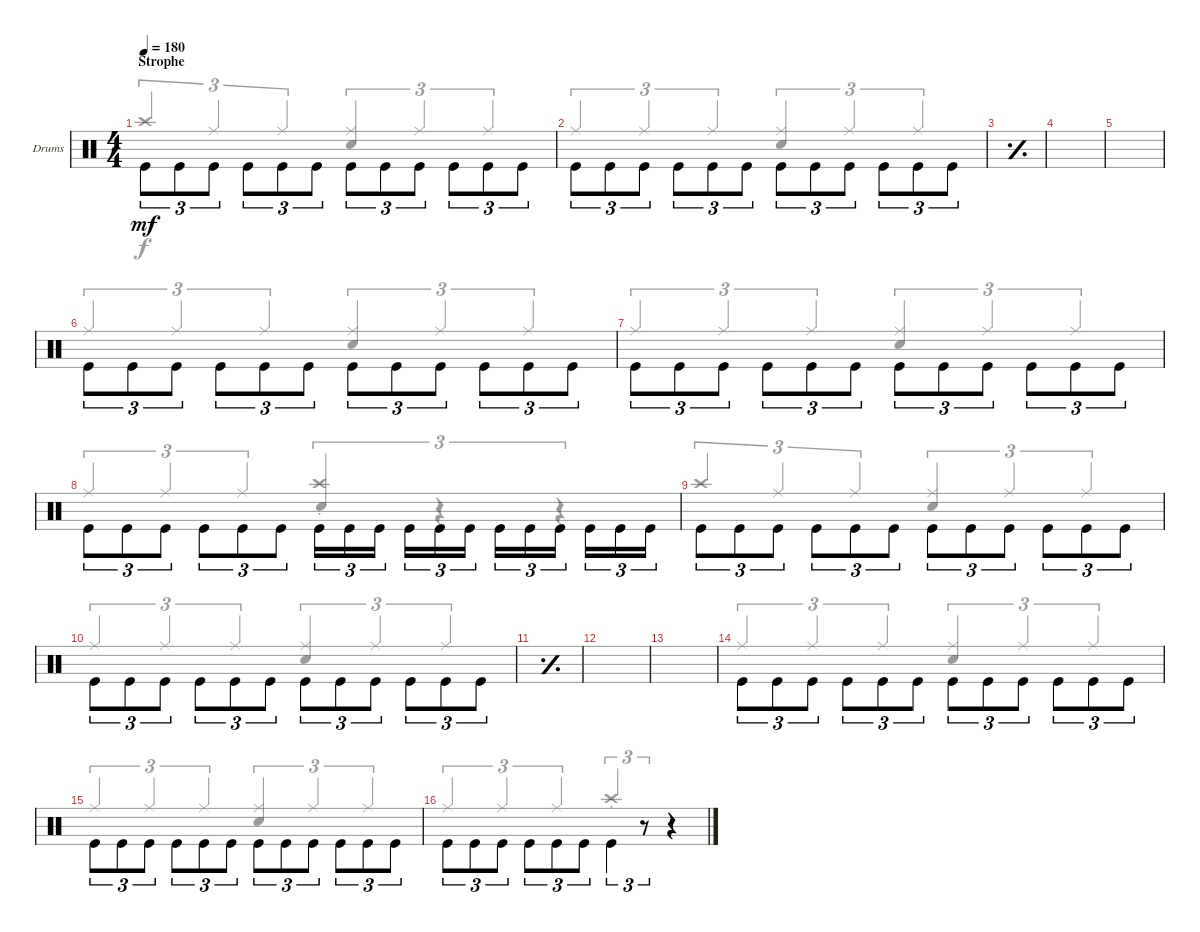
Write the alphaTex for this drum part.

\defaultSystemsLayout 4
\bracketExtendMode groupsimilarinstruments
\multiBarRest
\firstSystemTrackNameOrientation horizontal
\otherSystemsTrackNameOrientation horizontal
\track ("Drumkit" "Drums") {instrument percussion}
\staff {score}
\articulation defaults
\voice
\ts (4 4)
\section ("" "Strophe")
\tempo 180
\clef neutral
\ks c "Kick (hit)".8{tu (3 2) dy mf beam invert} "Kick (hit)".8{tu (3 2) beam invert} "Kick (hit)".8{tu (3 2) beam invert} "Kick (hit)".8{tu (3 2) beam invert} "Kick (hit)".8{tu (3 2) beam invert} "Kick (hit)".8{tu (3 2) beam invert} "Kick (hit)".8{tu (3 2) beam invert} "Kick (hit)".8{tu (3 2) beam invert} "Kick (hit)".8{tu (3 2) beam invert} "Kick (hit)".8{tu (3 2) beam invert} "Kick (hit)".8{tu (3 2) beam invert} "Kick (hit)".8{tu (3 2) beam invert}
|
"Kick (hit)".8{tu (3 2) beam invert} "Kick (hit)".8{tu (3 2) beam invert} "Kick (hit)".8{tu (3 2) beam invert} "Kick (hit)".8{tu (3 2) beam invert} "Kick (hit)".8{tu (3 2) beam invert} "Kick (hit)".8{tu (3 2) beam invert} "Kick (hit)".8{tu (3 2) beam invert} "Kick (hit)".8{tu (3 2) beam invert} "Kick (hit)".8{tu (3 2) beam invert} "Kick (hit)".8{tu (3 2) beam invert} "Kick (hit)".8{tu (3 2) beam invert} "Kick (hit)".8{tu (3 2) beam invert} |
\simile simple
|
|
|
\simile none "Kick (hit)".8{tu (3 2) beam invert} "Kick (hit)".8{tu (3 2) beam invert} "Kick (hit)".8{tu (3 2) beam invert} "Kick (hit)".8{tu (3 2) beam invert} "Kick (hit)".8{tu (3 2) beam invert} "Kick (hit)".8{tu (3 2) beam invert} "Kick (hit)".8{tu (3 2) beam invert} "Kick (hit)".8{tu (3 2) beam invert} "Kick (hit)".8{tu (3 2) beam invert} "Kick (hit)".8{tu (3 2) beam invert} "Kick (hit)".8{tu (3 2) beam invert} "Kick (hit)".8{tu (3 2) beam invert}
|
"Kick (hit)".8{tu (3 2) beam invert} "Kick (hit)".8{tu (3 2) beam invert} "Kick (hit)".8{tu (3 2) beam invert} "Kick (hit)".8{tu (3 2) beam invert} "Kick (hit)".8{tu (3 2) beam invert} "Kick (hit)".8{tu (3 2) beam invert} "Kick (hit)".8{tu (3 2) beam invert} "Kick (hit)".8{tu (3 2) beam invert} "Kick (hit)".8{tu (3 2) beam invert} "Kick (hit)".8{tu (3 2) beam invert} "Kick (hit)".8{tu (3 2) beam invert} "Kick (hit)".8{tu (3 2) beam invert} |
"Kick (hit)".8{tu (3 2) beam invert} "Kick (hit)".8{tu (3 2) beam invert} "Kick (hit)".8{tu (3 2) beam invert} "Kick (hit)".8{tu (3 2) beam invert} "Kick (hit)".8{tu (3 2) beam invert} "Kick (hit)".8{tu (3 2) beam invert} "Kick (hit)".16{tu (3 2)} "Kick (hit)".16{tu (3 2)} "Kick (hit)".16{tu (3 2) beam invert} "Kick (hit)".16{tu (3 2) beam invert} "Kick (hit)".16{tu (3 2) beam invert} "Kick (hit)".16{tu (3 2) beam invert} "Kick (hit)".16{tu (3 2)} "Kick (hit)".16{tu (3 2)} "Kick (hit)".16{tu (3 2) beam invert} "Kick (hit)".16{tu (3 2) beam invert} "Kick (hit)".16{tu (3 2) beam invert} "Kick (hit)".16{tu (3 2) beam invert} |
"Kick (hit)".8{tu (3 2) beam invert} "Kick (hit)".8{tu (3 2) beam invert} "Kick (hit)".8{tu (3 2) beam invert} "Kick (hit)".8{tu (3 2) beam invert} "Kick (hit)".8{tu (3 2) beam invert} "Kick (hit)".8{tu (3 2) beam invert} "Kick (hit)".8{tu (3 2) beam invert} "Kick (hit)".8{tu (3 2) beam invert} "Kick (hit)".8{tu (3 2) beam invert} "Kick (hit)".8{tu (3 2) beam invert} "Kick (hit)".8{tu (3 2) beam invert} "Kick (hit)".8{tu (3 2) beam invert} |
"Kick (hit)".8{tu (3 2) beam invert} "Kick (hit)".8{tu (3 2) beam invert} "Kick (hit)".8{tu (3 2) beam invert} "Kick (hit)".8{tu (3 2) beam invert} "Kick (hit)".8{tu (3 2) beam invert} "Kick (hit)".8{tu (3 2) beam invert} "Kick (hit)".8{tu (3 2) beam invert} "Kick (hit)".8{tu (3 2) beam invert} "Kick (hit)".8{tu (3 2) beam invert} "Kick (hit)".8{tu (3 2) beam invert} "Kick (hit)".8{tu (3 2) beam invert} "Kick (hit)".8{tu (3 2) beam invert} |
\simile simple
|
|
|
\simile none "Kick (hit)".8{tu (3 2) beam invert} "Kick (hit)".8{tu (3 2) beam invert} "Kick (hit)".8{tu (3 2) beam invert} "Kick (hit)".8{tu (3 2) beam invert} "Kick (hit)".8{tu (3 2) beam invert} "Kick (hit)".8{tu (3 2) beam invert} "Kick (hit)".8{tu (3 2) beam invert} "Kick (hit)".8{tu (3 2) beam invert} "Kick (hit)".8{tu (3 2) beam invert} "Kick (hit)".8{tu (3 2) beam invert} "Kick (hit)".8{tu (3 2) beam invert} "Kick (hit)".8{tu (3 2) beam invert}
|
"Kick (hit)".8{tu (3 2) beam invert} "Kick (hit)".8{tu (3 2) beam invert} "Kick (hit)".8{tu (3 2) beam invert} "Kick (hit)".8{tu (3 2) beam invert} "Kick (hit)".8{tu (3 2) beam invert} "Kick (hit)".8{tu (3 2) beam invert} "Kick (hit)".8{tu (3 2) beam invert} "Kick (hit)".8{tu (3 2) beam invert} "Kick (hit)".8{tu (3 2) beam invert} "Kick (hit)".8{tu (3 2) beam invert} "Kick (hit)".8{tu (3 2) beam invert} "Kick (hit)".8{tu (3 2) beam invert} |
"Kick (hit)".8{tu (3 2) beam invert} "Kick (hit)".8{tu (3 2) beam invert} "Kick (hit)".8{tu (3 2) beam invert} "Kick (hit)".8{tu (3 2) beam invert} "Kick (hit)".8{tu (3 2) beam invert} "Kick (hit)".8{tu (3 2) beam invert} "Kick (hit)".4{tu (3 2) beam invert} r.8{tu (3 2)} r.4
\voice
\clef neutral
\ottava regular
\simile none
\ks c "Crash high (hit)".4{tu (3 2) dy f beam invert} "Ride (middle)".4{tu (3 2) beam invert} "Ride (middle)".4{tu (3 2) beam invert}
("Ride (middle)" "Snare (hit) 2").4{tu (3 2) beam invert} "Ride (middle)".4{tu (3 2) beam invert} "Ride (middle)".4{tu (3 2) beam invert} |
"Ride (middle)".4{tu (3 2) beam invert} "Ride (middle)".4{tu (3 2) beam invert} "Ride (middle)".4{tu (3 2) beam invert} ("Ride (middle)" "Snare (hit) 2").4{tu (3 2) beam invert} "Ride (middle)".4{tu (3 2) beam invert} "Ride (middle)".4{tu (3 2) beam invert} |
\simile simple
|
|
|
\simile none "Ride (middle)".4{tu (3 2) beam invert} "Ride (middle)".4{tu (3 2) beam invert} "Ride (middle)".4{tu (3 2) beam invert}
("Ride (middle)" "Snare (hit) 2").4{tu (3 2) beam invert} "Ride (middle)".4{tu (3 2) beam invert} "Ride (middle)".4{tu (3 2) beam invert} |
"Ride (middle)".4{tu (3 2) beam invert} "Ride (middle)".4{tu (3 2) beam invert} "Ride (middle)".4{tu (3 2) beam invert} ("Ride (middle)" "Snare (hit) 2").4{tu (3 2) beam invert} "Ride (middle)".4{tu (3 2) beam invert} "Ride (middle)".4{tu (3 2) beam invert} |
"Ride (middle)".4{tu (3 2) beam invert} "Ride (middle)".4{tu (3 2) beam invert} "Ride (middle)".4{tu (3 2) beam invert} ("Snare (hit) 2" "Crash high (hit)"{st}).4{tu (3 2) beam invert} r.4{tu (3 2)} r.4{tu (3 2)} |
"Crash high (hit)".4{tu (3 2) beam invert} "Ride (middle)".4{tu (3 2) beam invert} "Ride (middle)".4{tu (3 2) beam invert} ("Ride (middle)" "Snare (hit) 2").4{tu (3 2) beam invert} "Ride (middle)".4{tu (3 2) beam invert} "Ride (middle)".4{tu (3 2) beam invert} |
"Ride (middle)".4{tu (3 2) beam invert} "Ride (middle)".4{tu (3 2) beam invert} "Ride (middle)".4{tu (3 2) beam invert} ("Ride (middle)" "Snare (hit) 2").4{tu (3 2) beam invert} "Ride (middle)".4{tu (3 2) beam invert} "Ride (middle)".4{tu (3 2) beam invert} |
\simile simple
|
|
|
\simile none "Ride (middle)".4{tu (3 2) beam invert} "Ride (middle)".4{tu (3 2) beam invert} "Ride (middle)".4{tu (3 2) beam invert}
("Ride (middle)" "Snare (hit) 2").4{tu (3 2) beam invert} "Ride (middle)".4{tu (3 2) beam invert} "Ride (middle)".4{tu (3 2) beam invert} |
"Ride (middle)".4{tu (3 2) beam invert} "Ride (middle)".4{tu (3 2) beam invert} "Ride (middle)".4{tu (3 2) beam invert} ("Ride (middle)" "Snare (hit) 2").4{tu (3 2) beam invert} "Ride (middle)".4{tu (3 2) beam invert} "Ride (middle)".4{tu (3 2) beam invert} |
"Ride (middle)".4{tu (3 2) beam invert} "Ride (middle)".4{tu (3 2) beam invert} "Ride (middle)".4{tu (3 2) beam invert} "Crash high (hit)"{st}.4{tu (3 2) beam invert} r.8{tu (3 2)} r.4
